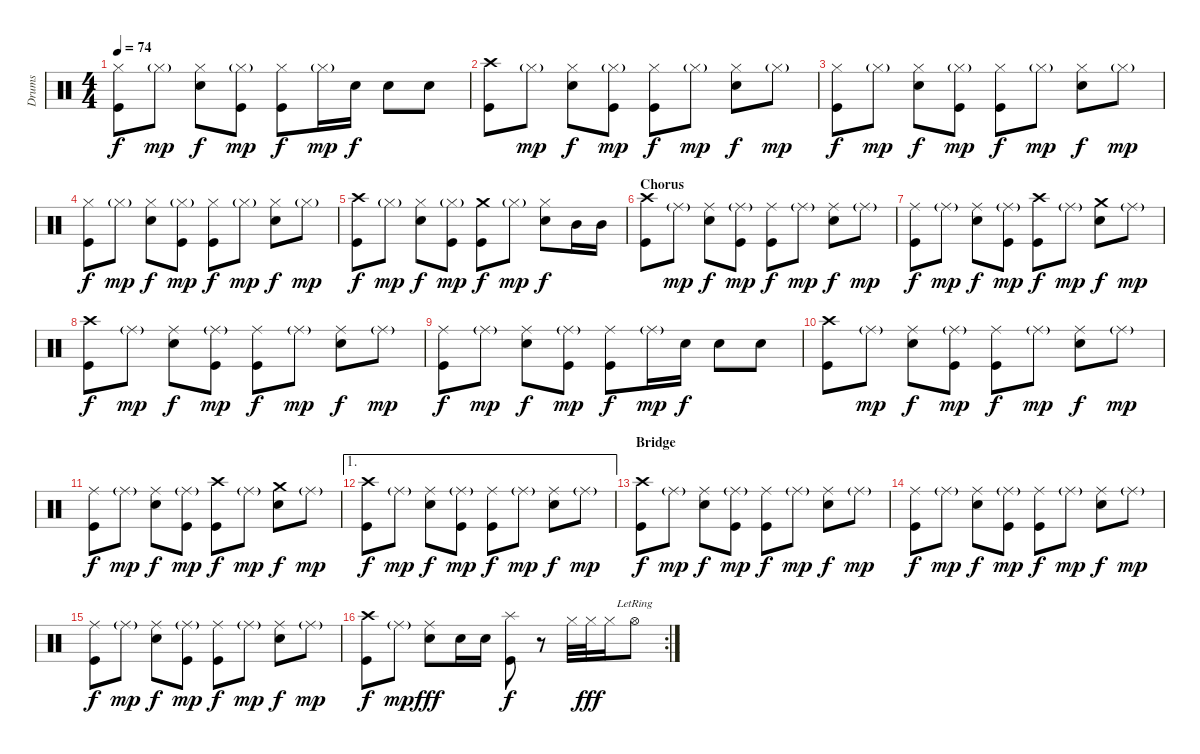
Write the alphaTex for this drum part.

\track ("Drums" "Drums") {instrument percussion}
\staff {score}
\articulation defaults
\ts (4 4)
\tempo 74
\clef neutral
\ks c
("Hi-Hat (closed)" "Kick (hit)").8{dy f} "Hi-Hat (closed)"{g}.8{dy mp} ("Hi-Hat (closed)" "Snare (hit) 2").8{dy f} ("Hi-Hat (closed)"{g} "Kick (hit)").8{dy mp} ("Hi-Hat (closed)" "Kick (hit)").8{dy f} "Hi-Hat (closed)"{g}.16{dy mp} "Snare (hit) 2".16{dy f} "Snare (hit) 2".8 "Snare (hit) 2".8 |
("Crash high (hit)" "Kick (hit)").8 "Hi-Hat (closed)"{g}.8{dy mp} ("Hi-Hat (closed)" "Snare (hit) 2").8{dy f} ("Hi-Hat (closed)"{g} "Kick (hit)").8{dy mp} ("Hi-Hat (closed)" "Kick (hit)").8{dy f} "Hi-Hat (closed)"{g}.8{dy mp} ("Hi-Hat (closed)" "Snare (hit) 2").8{dy f} "Hi-Hat (closed)"{g}.8{dy mp} |
("Hi-Hat (closed)" "Kick (hit)").8{dy f} "Hi-Hat (closed)"{g}.8{dy mp} ("Hi-Hat (closed)" "Snare (hit) 2").8{dy f} ("Hi-Hat (closed)"{g} "Kick (hit)").8{dy mp} ("Hi-Hat (closed)" "Kick (hit)").8{dy f} "Hi-Hat (closed)"{g}.8{dy mp} ("Hi-Hat (closed)" "Snare (hit) 2").8{dy f} "Hi-Hat (closed)"{g}.8{dy mp} |
("Hi-Hat (closed)" "Kick (hit)").8{dy f} "Hi-Hat (closed)"{g}.8{dy mp} ("Hi-Hat (closed)" "Snare (hit) 2").8{dy f} ("Hi-Hat (closed)"{g} "Kick (hit)").8{dy mp} ("Hi-Hat (closed)" "Kick (hit)").8{dy f} "Hi-Hat (closed)"{g}.8{dy mp} ("Hi-Hat (closed)" "Snare (hit) 2").8{dy f} "Hi-Hat (closed)"{g}.8{dy mp} |
("Crash high (hit)" "Kick (hit)").8{dy f} "Hi-Hat (closed)"{g}.8{dy mp} ("Hi-Hat (closed)" "Snare (hit) 2").8{dy f} ("Hi-Hat (closed)"{g} "Kick (hit)").8{dy mp} ("Crash medium (hit)" "Kick (hit)").8{dy f} "Hi-Hat (closed)"{g}.8{dy mp} ("Hi-Hat (closed)" "Snare (hit) 2").8{dy f} "Mid Tom (hit)".16 "Mid Tom (hit)".16 |
\section ("" "Chorus")
("Crash high (hit)" "Kick (hit)").8 "Ride (middle)"{g}.8{dy mp} ("Ride (middle)" "Snare (hit) 2").8{dy f} ("Ride (middle)"{g} "Kick (hit)").8{dy mp} ("Ride (middle)" "Kick (hit)").8{dy f} "Ride (middle)"{g}.8{dy mp} ("Ride (middle)" "Snare (hit) 2").8{dy f} "Ride (middle)"{g}.8{dy mp} |
("Ride (middle)" "Kick (hit)").8{dy f} "Ride (middle)"{g}.8{dy mp} ("Ride (middle)" "Snare (hit) 2").8{dy f} ("Ride (middle)"{g} "Kick (hit)").8{dy mp} ("Crash high (hit)" "Kick (hit)").8{dy f} "Ride (middle)"{g}.8{dy mp} ("Crash medium (hit)" "Snare (hit) 2").8{dy f} "Ride (middle)"{g}.8{dy mp} |
("Crash high (hit)" "Kick (hit)").8{dy f} "Ride (middle)"{g}.8{dy mp} ("Ride (middle)" "Snare (hit) 2").8{dy f} ("Ride (middle)"{g} "Kick (hit)").8{dy mp} ("Ride (middle)" "Kick (hit)").8{dy f} "Ride (middle)"{g}.8{dy mp} ("Ride (middle)" "Snare (hit) 2").8{dy f} "Ride (middle)"{g}.8{dy mp} |
("Ride (middle)" "Kick (hit)").8{dy f} "Ride (middle)"{g}.8{dy mp} ("Ride (middle)" "Snare (hit) 2").8{dy f} ("Ride (middle)"{g} "Kick (hit)").8{dy mp} ("Ride (middle)" "Kick (hit)").8{dy f} "Ride (middle)"{g}.16{dy mp} "Snare (hit) 2".16{dy f} "Snare (hit) 2".8 "Snare (hit) 2".8 |
("Crash high (hit)" "Kick (hit)").8 "Ride (middle)"{g}.8{dy mp} ("Ride (middle)" "Snare (hit) 2").8{dy f} ("Ride (middle)"{g} "Kick (hit)").8{dy mp} ("Ride (middle)" "Kick (hit)").8{dy f} "Ride (middle)"{g}.8{dy mp} ("Ride (middle)" "Snare (hit) 2").8{dy f} "Ride (middle)"{g}.8{dy mp} |
("Ride (middle)" "Kick (hit)").8{dy f} "Ride (middle)"{g}.8{dy mp} ("Ride (middle)" "Snare (hit) 2").8{dy f} ("Ride (middle)"{g} "Kick (hit)").8{dy mp} ("Crash high (hit)" "Kick (hit)").8{dy f} "Ride (middle)"{g}.8{dy mp} ("Crash medium (hit)" "Snare (hit) 2").8{dy f} "Ride (middle)"{g}.8{dy mp} |
\ae 1
("Crash high (hit)" "Kick (hit)").8{dy f} "Ride (middle)"{g}.8{dy mp} ("Ride (middle)" "Snare (hit) 2").8{dy f} ("Ride (middle)"{g} "Kick (hit)").8{dy mp} ("Ride (middle)" "Kick (hit)").8{dy f} "Ride (middle)"{g}.8{dy mp} ("Ride (middle)" "Snare (hit) 2").8{dy f} "Ride (middle)"{g}.8{dy mp} |
\section ("" "Bridge")
("Crash high (hit)" "Kick (hit)").8{dy f} "Ride (middle)"{g}.8{dy mp} ("Ride (middle)" "Snare (hit) 2").8{dy f} ("Ride (middle)"{g} "Kick (hit)").8{dy mp} ("Ride (middle)" "Kick (hit)").8{dy f} "Ride (middle)"{g}.8{dy mp} ("Ride (middle)" "Snare (hit) 2").8{dy f} "Ride (middle)"{g}.8{dy mp} |
("Ride (middle)" "Kick (hit)").8{dy f} "Ride (middle)"{g}.8{dy mp} ("Ride (middle)" "Snare (hit) 2").8{dy f} ("Ride (middle)"{g} "Kick (hit)").8{dy mp} ("Ride (middle)" "Kick (hit)").8{dy f} "Ride (middle)"{g}.8{dy mp} ("Ride (middle)" "Snare (hit) 2").8{dy f} "Ride (middle)"{g}.8{dy mp} |
("Ride (middle)" "Kick (hit)").8{dy f} "Ride (middle)"{g}.8{dy mp} ("Ride (middle)" "Snare (hit) 2").8{dy f} ("Ride (middle)"{g} "Kick (hit)").8{dy mp} ("Ride (middle)" "Kick (hit)").8{dy f} "Ride (middle)"{g}.8{dy mp} ("Ride (middle)" "Snare (hit) 2").8{dy f} "Ride (middle)"{g}.8{dy mp} |
\rc 2
("Crash high (hit)" "Kick (hit)").8{dy f} "Ride (middle)"{g}.8{dy mp} ("Ride (middle)" "Snare (hit) 2").8{dy fff} "Snare (hit) 2".16 "Snare (hit) 2".16 ("Splash (hit)" "Kick (hit)").8{dy f} r.8 "Hi-Hat (closed)".32 "Hi-Hat (closed)".32{dy fff} "Hi-Hat (closed)".16 "Hi-Hat (open)"{lr}.8
